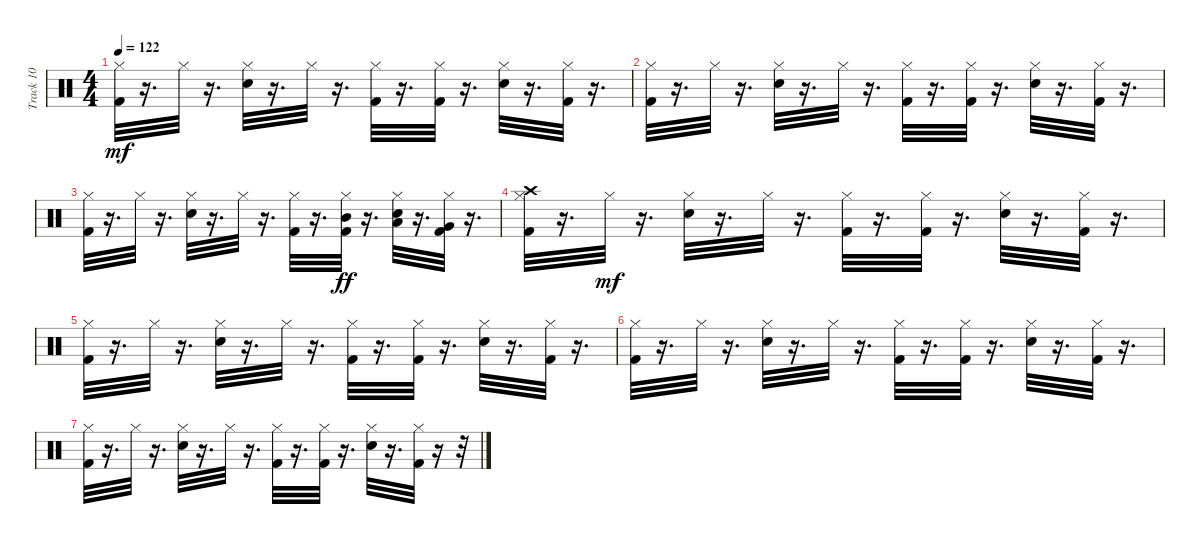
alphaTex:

\track ("Track 10" "Track 10") {instrument percussion}
\staff {score}
\articulation defaults
\ts (4 4)
\tempo 122
\clef neutral
\ks c
("Kick (hit) 2" "Hi-Hat (closed)").32{dy mf} r.16{d} "Hi-Hat (closed)".32 r.16{d} ("Electric Snare (hit)" "Hi-Hat (closed)").32 r.16{d} "Hi-Hat (closed)".32 r.16{d} ("Kick (hit) 2" "Hi-Hat (closed)").32 r.16{d} ("Kick (hit) 2" "Hi-Hat (closed)").32 r.16{d} ("Electric Snare (hit)" "Hi-Hat (closed)").32 r.16{d} ("Kick (hit) 2" "Hi-Hat (closed)").32 r.16{d} |
("Kick (hit) 2" "Hi-Hat (closed)").32 r.16{d} "Hi-Hat (closed)".32 r.16{d} ("Electric Snare (hit)" "Hi-Hat (closed)").32 r.16{d} "Hi-Hat (closed)".32 r.16{d} ("Kick (hit) 2" "Hi-Hat (closed)").32 r.16{d} ("Kick (hit) 2" "Hi-Hat (closed)").32 r.16{d} ("Electric Snare (hit)" "Hi-Hat (closed)").32 r.16{d} ("Kick (hit) 2" "Hi-Hat (closed)").32 r.16{d} |
("Kick (hit) 2" "Hi-Hat (closed)").32 r.16{d} "Hi-Hat (closed)".32 r.16{d} ("Electric Snare (hit)" "Hi-Hat (closed)").32 r.16{d} "Hi-Hat (closed)".32 r.16{d} ("Kick (hit) 2" "Hi-Hat (closed)").32 r.16{d} ("Kick (hit) 2" "Hi-Hat (closed)" "Mid Tom (hit)").32{dy ff} r.16{d} ("Electric Snare (hit)" "Hi-Hat (closed)" "Low Tom (hit)").32 r.16{d} ("Kick (hit) 2" "Hi-Hat (closed)" "Very Low Tom (hit)").32 r.16{d} |
("Kick (hit) 2" "Hi-Hat (closed)" "Crash high (hit)").32 r.16{d} "Hi-Hat (closed)".32{dy mf} r.16{d} ("Electric Snare (hit)" "Hi-Hat (closed)").32 r.16{d} "Hi-Hat (closed)".32 r.16{d} ("Kick (hit) 2" "Hi-Hat (closed)").32 r.16{d} ("Kick (hit) 2" "Hi-Hat (closed)").32 r.16{d} ("Electric Snare (hit)" "Hi-Hat (closed)").32 r.16{d} ("Kick (hit) 2" "Hi-Hat (closed)").32 r.16{d} |
("Kick (hit) 2" "Hi-Hat (closed)").32 r.16{d} "Hi-Hat (closed)".32 r.16{d} ("Electric Snare (hit)" "Hi-Hat (closed)").32 r.16{d} "Hi-Hat (closed)".32 r.16{d} ("Kick (hit) 2" "Hi-Hat (closed)").32 r.16{d} ("Kick (hit) 2" "Hi-Hat (closed)").32 r.16{d} ("Electric Snare (hit)" "Hi-Hat (closed)").32 r.16{d} ("Kick (hit) 2" "Hi-Hat (closed)").32 r.16{d} |
("Kick (hit) 2" "Hi-Hat (closed)").32 r.16{d} "Hi-Hat (closed)".32 r.16{d} ("Electric Snare (hit)" "Hi-Hat (closed)").32 r.16{d} "Hi-Hat (closed)".32 r.16{d} ("Kick (hit) 2" "Hi-Hat (closed)").32 r.16{d} ("Kick (hit) 2" "Hi-Hat (closed)").32 r.16{d} ("Electric Snare (hit)" "Hi-Hat (closed)").32 r.16{d} ("Kick (hit) 2" "Hi-Hat (closed)").32 r.16{d} |
("Kick (hit) 2" "Hi-Hat (closed)").32 r.16{d} "Hi-Hat (closed)".32 r.16{d} ("Electric Snare (hit)" "Hi-Hat (closed)").32 r.16{d} "Hi-Hat (closed)".32 r.16{d} ("Kick (hit) 2" "Hi-Hat (closed)").32 r.16{d} ("Kick (hit) 2" "Hi-Hat (closed)").32 r.16{d} ("Electric Snare (hit)" "Hi-Hat (closed)").32 r.16{d} ("Kick (hit) 2" "Hi-Hat (closed)").32 r.16 r.32
